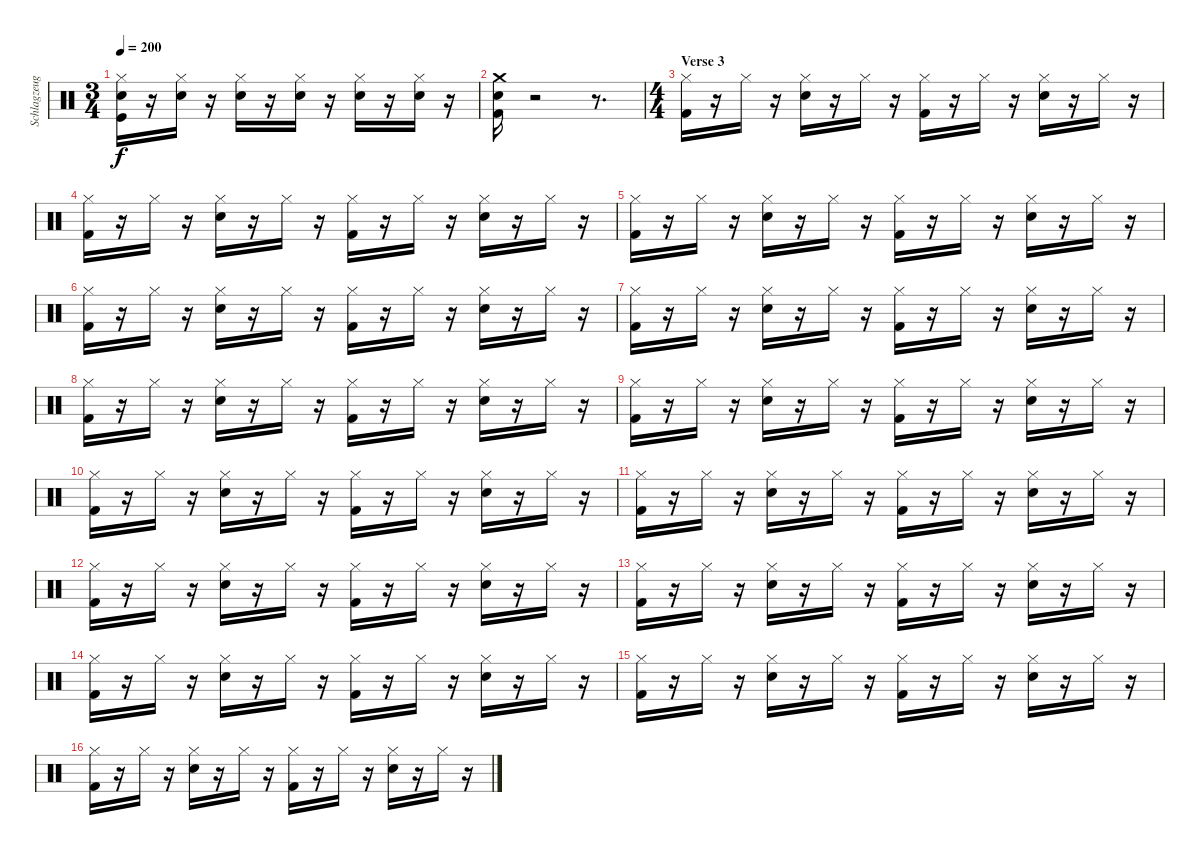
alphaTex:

\track ("Schlagzeug - Bela B." "Schlagzeug") {instrument percussion}
\staff {score}
\articulation defaults
\ts (3 4)
\tempo 200
\clef neutral
\ks c
("Kick (hit)" "Hi-Hat (closed)" "Electric Snare (hit)").16{dy f} r.16 ("Hi-Hat (closed)" "Electric Snare (hit)").16 r.16 ("Hi-Hat (closed)" "Electric Snare (hit)").16 r.16 ("Hi-Hat (closed)" "Electric Snare (hit)").16 r.16 ("Hi-Hat (closed)" "Electric Snare (hit)").16 r.16 ("Hi-Hat (closed)" "Electric Snare (hit)").16 r.16 |
("Kick (hit) 2" "Electric Snare (hit)" "Crash medium (hit)").16 r.2 r.8{d} |
\ts (4 4)
\section ("" "Verse 3")
("Kick (hit) 2" "Hi-Hat (closed)").16 r.16 "Hi-Hat (closed)".16 r.16 ("Hi-Hat (closed)" "Snare (hit) 2").16 r.16 "Hi-Hat (closed)".16 r.16 ("Kick (hit) 2" "Hi-Hat (closed)").16 r.16 "Hi-Hat (closed)".16 r.16 ("Hi-Hat (closed)" "Snare (hit) 2").16 r.16 "Hi-Hat (closed)".16 r.16 |
("Kick (hit) 2" "Hi-Hat (closed)").16 r.16 "Hi-Hat (closed)".16 r.16 ("Hi-Hat (closed)" "Snare (hit) 2").16 r.16 "Hi-Hat (closed)".16 r.16 ("Kick (hit) 2" "Hi-Hat (closed)").16 r.16 "Hi-Hat (closed)".16 r.16 ("Hi-Hat (closed)" "Snare (hit) 2").16 r.16 "Hi-Hat (closed)".16 r.16 |
("Kick (hit) 2" "Hi-Hat (closed)").16 r.16 "Hi-Hat (closed)".16 r.16 ("Hi-Hat (closed)" "Snare (hit) 2").16 r.16 "Hi-Hat (closed)".16 r.16 ("Kick (hit) 2" "Hi-Hat (closed)").16 r.16 "Hi-Hat (closed)".16 r.16 ("Hi-Hat (closed)" "Snare (hit) 2").16 r.16 "Hi-Hat (closed)".16 r.16 |
("Kick (hit) 2" "Hi-Hat (closed)").16 r.16 "Hi-Hat (closed)".16 r.16 ("Hi-Hat (closed)" "Snare (hit) 2").16 r.16 "Hi-Hat (closed)".16 r.16 ("Kick (hit) 2" "Hi-Hat (closed)").16 r.16 "Hi-Hat (closed)".16 r.16 ("Hi-Hat (closed)" "Snare (hit) 2").16 r.16 "Hi-Hat (closed)".16 r.16 |
("Kick (hit) 2" "Hi-Hat (closed)").16 r.16 "Hi-Hat (closed)".16 r.16 ("Hi-Hat (closed)" "Snare (hit) 2").16 r.16 "Hi-Hat (closed)".16 r.16 ("Kick (hit) 2" "Hi-Hat (closed)").16 r.16 "Hi-Hat (closed)".16 r.16 ("Hi-Hat (closed)" "Snare (hit) 2").16 r.16 "Hi-Hat (closed)".16 r.16 |
("Kick (hit) 2" "Hi-Hat (closed)").16 r.16 "Hi-Hat (closed)".16 r.16 ("Hi-Hat (closed)" "Snare (hit) 2").16 r.16 "Hi-Hat (closed)".16 r.16 ("Kick (hit) 2" "Hi-Hat (closed)").16 r.16 "Hi-Hat (closed)".16 r.16 ("Hi-Hat (closed)" "Snare (hit) 2").16 r.16 "Hi-Hat (closed)".16 r.16 |
("Kick (hit) 2" "Hi-Hat (closed)").16 r.16 "Hi-Hat (closed)".16 r.16 ("Hi-Hat (closed)" "Snare (hit) 2").16 r.16 "Hi-Hat (closed)".16 r.16 ("Kick (hit) 2" "Hi-Hat (closed)").16 r.16 "Hi-Hat (closed)".16 r.16 ("Hi-Hat (closed)" "Snare (hit) 2").16 r.16 "Hi-Hat (closed)".16 r.16 |
("Kick (hit) 2" "Hi-Hat (closed)").16 r.16 "Hi-Hat (closed)".16 r.16 ("Hi-Hat (closed)" "Snare (hit) 2").16 r.16 "Hi-Hat (closed)".16 r.16 ("Kick (hit) 2" "Hi-Hat (closed)").16 r.16 "Hi-Hat (closed)".16 r.16 ("Hi-Hat (closed)" "Snare (hit) 2").16 r.16 "Hi-Hat (closed)".16 r.16 |
("Kick (hit) 2" "Hi-Hat (closed)").16 r.16 "Hi-Hat (closed)".16 r.16 ("Hi-Hat (closed)" "Snare (hit) 2").16 r.16 "Hi-Hat (closed)".16 r.16 ("Kick (hit) 2" "Hi-Hat (closed)").16 r.16 "Hi-Hat (closed)".16 r.16 ("Hi-Hat (closed)" "Snare (hit) 2").16 r.16 "Hi-Hat (closed)".16 r.16 |
("Kick (hit) 2" "Hi-Hat (closed)").16 r.16 "Hi-Hat (closed)".16 r.16 ("Hi-Hat (closed)" "Snare (hit) 2").16 r.16 "Hi-Hat (closed)".16 r.16 ("Kick (hit) 2" "Hi-Hat (closed)").16 r.16 "Hi-Hat (closed)".16 r.16 ("Hi-Hat (closed)" "Snare (hit) 2").16 r.16 "Hi-Hat (closed)".16 r.16 |
("Kick (hit) 2" "Hi-Hat (closed)").16 r.16 "Hi-Hat (closed)".16 r.16 ("Hi-Hat (closed)" "Snare (hit) 2").16 r.16 "Hi-Hat (closed)".16 r.16 ("Kick (hit) 2" "Hi-Hat (closed)").16 r.16 "Hi-Hat (closed)".16 r.16 ("Hi-Hat (closed)" "Snare (hit) 2").16 r.16 "Hi-Hat (closed)".16 r.16 |
("Kick (hit) 2" "Hi-Hat (closed)").16 r.16 "Hi-Hat (closed)".16 r.16 ("Hi-Hat (closed)" "Snare (hit) 2").16 r.16 "Hi-Hat (closed)".16 r.16 ("Kick (hit) 2" "Hi-Hat (closed)").16 r.16 "Hi-Hat (closed)".16 r.16 ("Hi-Hat (closed)" "Snare (hit) 2").16 r.16 "Hi-Hat (closed)".16 r.16 |
("Kick (hit) 2" "Hi-Hat (closed)").16 r.16 "Hi-Hat (closed)".16 r.16 ("Hi-Hat (closed)" "Snare (hit) 2").16 r.16 "Hi-Hat (closed)".16 r.16 ("Kick (hit) 2" "Hi-Hat (closed)").16 r.16 "Hi-Hat (closed)".16 r.16 ("Hi-Hat (closed)" "Snare (hit) 2").16 r.16 "Hi-Hat (closed)".16 r.16 |
("Kick (hit) 2" "Hi-Hat (closed)").16 r.16 "Hi-Hat (closed)".16 r.16 ("Hi-Hat (closed)" "Snare (hit) 2").16 r.16 "Hi-Hat (closed)".16 r.16 ("Kick (hit) 2" "Hi-Hat (closed)").16 r.16 "Hi-Hat (closed)".16 r.16 ("Hi-Hat (closed)" "Snare (hit) 2").16 r.16 "Hi-Hat (closed)".16 r.16
